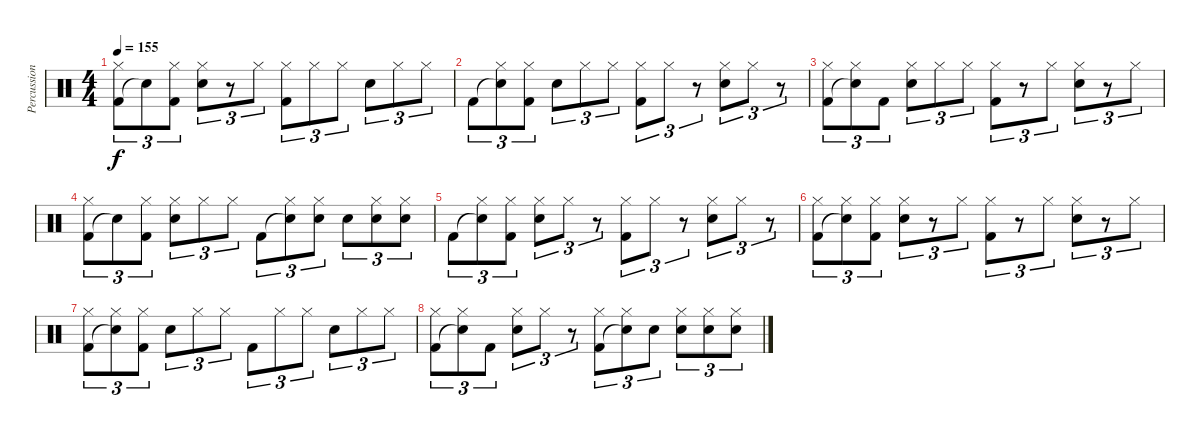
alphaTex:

\track ("Percussion" "Percussion") {instrument percussion}
\staff {score}
\articulation defaults
\ts (4 4)
\tempo 155
\clef neutral
\ks c
("Kick (hit) 2" "Hi-Hat (closed)").8{tu (3 2) dy f} "Snare (hit)"{t}.8{tu (3 2)} ("Kick (hit) 2" "Hi-Hat (closed)").8{tu (3 2)} ("Snare (hit) 2" "Hi-Hat (closed)").8{tu (3 2)} r.8{tu (3 2)} "Hi-Hat (closed)".8{tu (3 2)} ("Kick (hit) 2" "Hi-Hat (closed)").8{tu (3 2)} "Hi-Hat (closed)".8{tu (3 2)} "Hi-Hat (closed)".8{tu (3 2)} "Snare (hit) 2".8{tu (3 2)} "Hi-Hat (closed)".8{tu (3 2)} "Hi-Hat (closed)".8{tu (3 2)} |
"Kick (hit) 2".8{tu (3 2)} ("Snare (hit)"{t} "Hi-Hat (closed)").8{tu (3 2)} ("Kick (hit) 2" "Hi-Hat (closed)").8{tu (3 2)} "Snare (hit) 2".8{tu (3 2)} "Hi-Hat (closed)".8{tu (3 2)} "Hi-Hat (closed)".8{tu (3 2)} ("Kick (hit) 2" "Hi-Hat (closed)").8{tu (3 2)} "Hi-Hat (closed)".8{tu (3 2)} r.8{tu (3 2)} ("Snare (hit) 2" "Hi-Hat (closed)").8{tu (3 2)} "Hi-Hat (closed)".8{tu (3 2)} r.8{tu (3 2)} |
("Kick (hit) 2" "Hi-Hat (closed)").8{tu (3 2)} ("Snare (hit)"{t} "Hi-Hat (closed)").8{tu (3 2)} "Kick (hit) 2".8{tu (3 2)} ("Snare (hit) 2" "Hi-Hat (closed)").8{tu (3 2)} "Hi-Hat (closed)".8{tu (3 2)} "Hi-Hat (closed)".8{tu (3 2)} ("Kick (hit) 2" "Hi-Hat (closed)").8{tu (3 2)} r.8{tu (3 2)} "Hi-Hat (closed)".8{tu (3 2)} ("Snare (hit) 2" "Hi-Hat (closed)").8{tu (3 2)} r.8{tu (3 2)} "Hi-Hat (closed)".8{tu (3 2)} |
("Kick (hit) 2" "Hi-Hat (closed)").8{tu (3 2)} "Snare (hit)"{t}.8{tu (3 2)} ("Kick (hit) 2" "Hi-Hat (closed)").8{tu (3 2)} ("Snare (hit) 2" "Hi-Hat (closed)").8{tu (3 2)} "Hi-Hat (closed)".8{tu (3 2)} "Hi-Hat (closed)".8{tu (3 2)} "Kick (hit) 2".8{tu (3 2)} ("Snare (hit)"{t} "Hi-Hat (closed)").8{tu (3 2)} ("Snare (hit) 2" "Hi-Hat (closed)").8{tu (3 2)} "Snare (hit) 2".8{tu (3 2)} ("Snare (hit) 2" "Hi-Hat (closed)").8{tu (3 2)} ("Snare (hit) 2" "Hi-Hat (closed)").8{tu (3 2)} |
"Kick (hit) 2".8{tu (3 2)} ("Snare (hit)"{t} "Hi-Hat (closed)").8{tu (3 2)} ("Kick (hit) 2" "Hi-Hat (closed)").8{tu (3 2)} ("Snare (hit) 2" "Hi-Hat (closed)").8{tu (3 2)} "Hi-Hat (closed)".8{tu (3 2)} r.8{tu (3 2)} ("Kick (hit) 2" "Hi-Hat (closed)").8{tu (3 2)} "Hi-Hat (closed)".8{tu (3 2)} r.8{tu (3 2)} ("Snare (hit) 2" "Hi-Hat (closed)").8{tu (3 2)} "Hi-Hat (closed)".8{tu (3 2)} r.8{tu (3 2)} |
("Kick (hit) 2" "Hi-Hat (closed)").8{tu (3 2)} ("Snare (hit)"{t} "Hi-Hat (closed)").8{tu (3 2)} ("Kick (hit) 2" "Hi-Hat (closed)").8{tu (3 2)} ("Snare (hit) 2" "Hi-Hat (closed)").8{tu (3 2)} r.8{tu (3 2)} "Hi-Hat (closed)".8{tu (3 2)} ("Kick (hit) 2" "Hi-Hat (closed)").8{tu (3 2)} r.8{tu (3 2)} "Hi-Hat (closed)".8{tu (3 2)} ("Snare (hit) 2" "Hi-Hat (closed)").8{tu (3 2)} r.8{tu (3 2)} "Hi-Hat (closed)".8{tu (3 2)} |
("Kick (hit) 2" "Hi-Hat (closed)").8{tu (3 2)} ("Snare (hit)"{t} "Hi-Hat (closed)").8{tu (3 2)} ("Kick (hit) 2" "Hi-Hat (closed)").8{tu (3 2)} "Snare (hit) 2".8{tu (3 2)} "Hi-Hat (closed)".8{tu (3 2)} "Hi-Hat (closed)".8{tu (3 2)} "Kick (hit) 2".8{tu (3 2)} "Hi-Hat (closed)".8{tu (3 2)} "Hi-Hat (closed)".8{tu (3 2)} "Snare (hit) 2".8{tu (3 2)} "Hi-Hat (closed)".8{tu (3 2)} "Hi-Hat (closed)".8{tu (3 2)} |
("Kick (hit) 2" "Hi-Hat (closed)").8{tu (3 2)} ("Snare (hit)"{t} "Hi-Hat (closed)").8{tu (3 2)} "Kick (hit) 2".8{tu (3 2)} ("Snare (hit) 2" "Hi-Hat (closed)").8{tu (3 2)} "Hi-Hat (closed)".8{tu (3 2)} r.8{tu (3 2)} ("Kick (hit) 2" "Hi-Hat (closed)").8{tu (3 2)} ("Snare (hit)"{t} "Hi-Hat (closed)").8{tu (3 2)} "Snare (hit) 2".8{tu (3 2)} ("Snare (hit) 2" "Hi-Hat (closed)").8{tu (3 2)} ("Snare (hit) 2" "Hi-Hat (closed)").8{tu (3 2)} ("Snare (hit) 2" "Hi-Hat (closed)").8{tu (3 2)}
